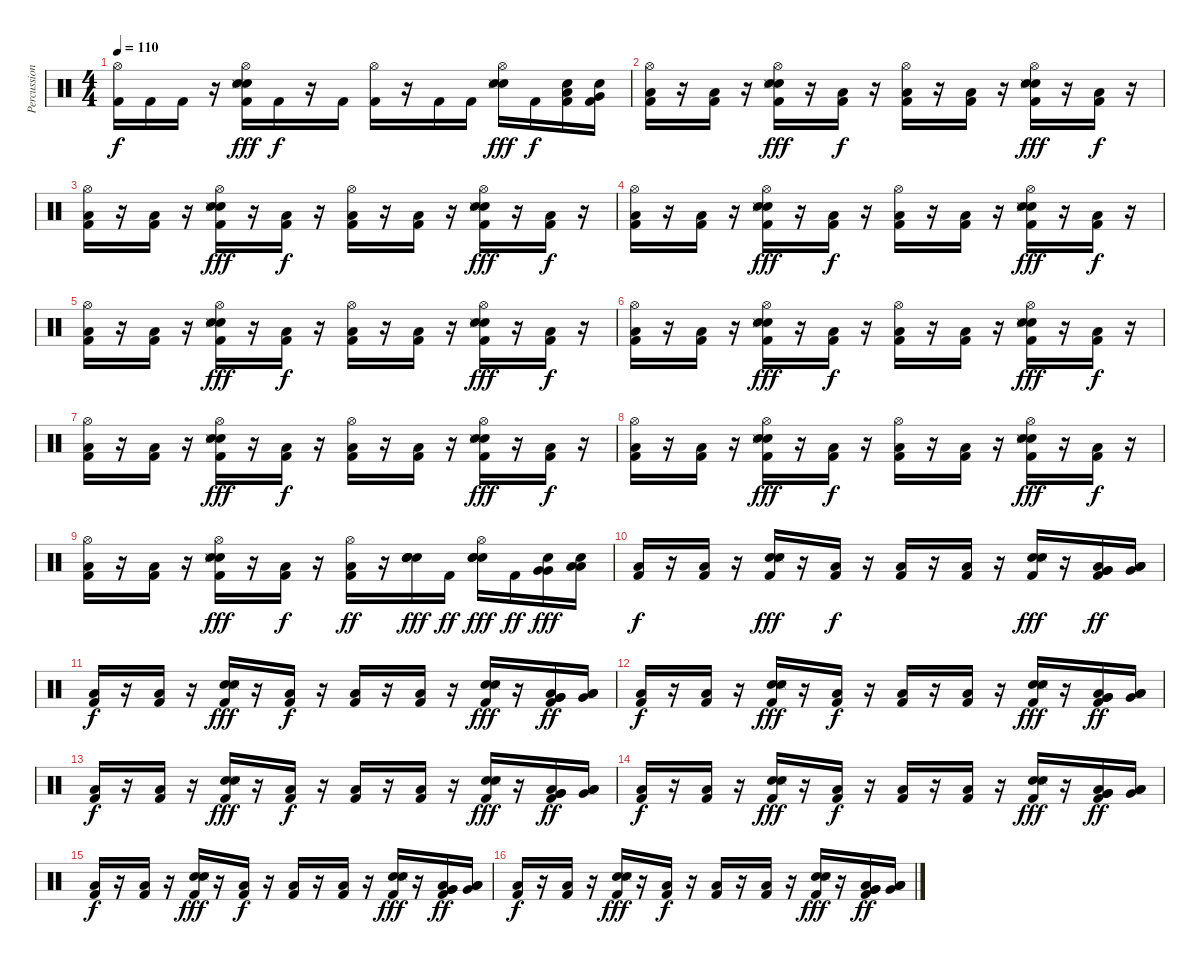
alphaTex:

\track ("Percussion" "Percussion") {instrument percussion}
\staff {score}
\articulation defaults
\ts (4 4)
\tempo 110
\clef neutral
\ks c
("Hi-Hat (open)" "Kick (hit) 2").16{dy f} "Kick (hit) 2".16 "Kick (hit) 2".16 r.16 ("Hi-Hat (open)" "Electric Snare (hit)" "Electric Snare (hit)" "Snare (side stick) 3" "Kick (hit) 2").16{dy fff} "Kick (hit) 2".16{dy f} r.16 "Kick (hit) 2".16 ("Hi-Hat (open)" "Kick (hit) 2").16 r.16 "Kick (hit) 2".16 "Kick (hit) 2".16 ("Hi-Hat (open)" "Electric Snare (hit)" "Electric Snare (hit)" "Snare (side stick) 3").16{dy fff} "Kick (hit) 2".16{dy f} ("Low Floor Tom (hit)" "Electric Snare (hit)" "Kick (hit) 2").16 ("Very Low Tom (hit)" "Electric Snare (hit)" "Kick (hit) 2").16 |
("Hi-Hat (open)" "Low Floor Tom (hit)" "Kick (hit) 2").16 r.16 ("Low Floor Tom (hit)" "Kick (hit) 2").16 r.16 ("Hi-Hat (open)" "Electric Snare (hit)" "Electric Snare (hit)" "Snare (side stick) 3" "Kick (hit) 2").16{dy fff} r.16 ("Low Floor Tom (hit)" "Kick (hit) 2").16{dy f} r.16 ("Hi-Hat (open)" "Low Floor Tom (hit)" "Kick (hit) 2").16 r.16 ("Low Floor Tom (hit)" "Kick (hit) 2").16 r.16 ("Hi-Hat (open)" "Electric Snare (hit)" "Electric Snare (hit)" "Snare (side stick) 3" "Kick (hit) 2").16{dy fff} r.16 ("Low Floor Tom (hit)" "Kick (hit) 2").16{dy f} r.16 |
("Hi-Hat (open)" "Low Floor Tom (hit)" "Kick (hit) 2").16 r.16 ("Low Floor Tom (hit)" "Kick (hit) 2").16 r.16 ("Hi-Hat (open)" "Electric Snare (hit)" "Electric Snare (hit)" "Snare (side stick) 3" "Kick (hit) 2").16{dy fff} r.16 ("Low Floor Tom (hit)" "Kick (hit) 2").16{dy f} r.16 ("Hi-Hat (open)" "Low Floor Tom (hit)" "Kick (hit) 2").16 r.16 ("Low Floor Tom (hit)" "Kick (hit) 2").16 r.16 ("Hi-Hat (open)" "Electric Snare (hit)" "Electric Snare (hit)" "Snare (side stick) 3" "Kick (hit) 2").16{dy fff} r.16 ("Low Floor Tom (hit)" "Kick (hit) 2").16{dy f} r.16 |
("Hi-Hat (open)" "Low Floor Tom (hit)" "Kick (hit) 2").16 r.16 ("Low Floor Tom (hit)" "Kick (hit) 2").16 r.16 ("Hi-Hat (open)" "Electric Snare (hit)" "Electric Snare (hit)" "Snare (side stick) 3" "Kick (hit) 2").16{dy fff} r.16 ("Low Floor Tom (hit)" "Kick (hit) 2").16{dy f} r.16 ("Hi-Hat (open)" "Low Floor Tom (hit)" "Kick (hit) 2").16 r.16 ("Low Floor Tom (hit)" "Kick (hit) 2").16 r.16 ("Hi-Hat (open)" "Electric Snare (hit)" "Electric Snare (hit)" "Snare (side stick) 3" "Kick (hit) 2").16{dy fff} r.16 ("Low Floor Tom (hit)" "Kick (hit) 2").16{dy f} r.16 |
("Hi-Hat (open)" "Low Floor Tom (hit)" "Kick (hit) 2").16 r.16 ("Low Floor Tom (hit)" "Kick (hit) 2").16 r.16 ("Hi-Hat (open)" "Electric Snare (hit)" "Electric Snare (hit)" "Snare (side stick) 3" "Kick (hit) 2").16{dy fff} r.16 ("Low Floor Tom (hit)" "Kick (hit) 2").16{dy f} r.16 ("Hi-Hat (open)" "Low Floor Tom (hit)" "Kick (hit) 2").16 r.16 ("Low Floor Tom (hit)" "Kick (hit) 2").16 r.16 ("Hi-Hat (open)" "Electric Snare (hit)" "Electric Snare (hit)" "Snare (side stick) 3" "Kick (hit) 2").16{dy fff} r.16 ("Low Floor Tom (hit)" "Kick (hit) 2").16{dy f} r.16 |
("Hi-Hat (open)" "Low Floor Tom (hit)" "Kick (hit) 2").16 r.16 ("Low Floor Tom (hit)" "Kick (hit) 2").16 r.16 ("Hi-Hat (open)" "Electric Snare (hit)" "Electric Snare (hit)" "Snare (side stick) 3" "Kick (hit) 2").16{dy fff} r.16 ("Low Floor Tom (hit)" "Kick (hit) 2").16{dy f} r.16 ("Hi-Hat (open)" "Low Floor Tom (hit)" "Kick (hit) 2").16 r.16 ("Low Floor Tom (hit)" "Kick (hit) 2").16 r.16 ("Hi-Hat (open)" "Electric Snare (hit)" "Electric Snare (hit)" "Snare (side stick) 3" "Kick (hit) 2").16{dy fff} r.16 ("Low Floor Tom (hit)" "Kick (hit) 2").16{dy f} r.16 |
("Hi-Hat (open)" "Low Floor Tom (hit)" "Kick (hit) 2").16 r.16 ("Low Floor Tom (hit)" "Kick (hit) 2").16 r.16 ("Hi-Hat (open)" "Electric Snare (hit)" "Electric Snare (hit)" "Snare (side stick) 3" "Kick (hit) 2").16{dy fff} r.16 ("Low Floor Tom (hit)" "Kick (hit) 2").16{dy f} r.16 ("Hi-Hat (open)" "Low Floor Tom (hit)" "Kick (hit) 2").16 r.16 ("Low Floor Tom (hit)" "Kick (hit) 2").16 r.16 ("Hi-Hat (open)" "Electric Snare (hit)" "Electric Snare (hit)" "Snare (side stick) 3" "Kick (hit) 2").16{dy fff} r.16 ("Low Floor Tom (hit)" "Kick (hit) 2").16{dy f} r.16 |
("Hi-Hat (open)" "Low Floor Tom (hit)" "Kick (hit) 2").16 r.16 ("Low Floor Tom (hit)" "Kick (hit) 2").16 r.16 ("Hi-Hat (open)" "Electric Snare (hit)" "Electric Snare (hit)" "Snare (side stick) 3" "Kick (hit) 2").16{dy fff} r.16 ("Low Floor Tom (hit)" "Kick (hit) 2").16{dy f} r.16 ("Hi-Hat (open)" "Low Floor Tom (hit)" "Kick (hit) 2").16 r.16 ("Low Floor Tom (hit)" "Kick (hit) 2").16 r.16 ("Hi-Hat (open)" "Electric Snare (hit)" "Electric Snare (hit)" "Snare (side stick) 3" "Kick (hit) 2").16{dy fff} r.16 ("Low Floor Tom (hit)" "Kick (hit) 2").16{dy f} r.16 |
("Hi-Hat (open)" "Low Floor Tom (hit)" "Kick (hit) 2").16 r.16 ("Low Floor Tom (hit)" "Kick (hit) 2").16 r.16 ("Hi-Hat (open)" "Electric Snare (hit)" "Electric Snare (hit)" "Snare (side stick) 3" "Kick (hit) 2").16{dy fff} r.16 ("Low Floor Tom (hit)" "Kick (hit) 2").16{dy f} r.16 ("Hi-Hat (open)" "Low Floor Tom (hit)" "Kick (hit) 2").16{dy ff} r.16 ("Electric Snare (hit)" "Electric Snare (hit)" "Electric Snare (hit)" "Electric Snare (hit)").16{dy fff} "Kick (hit) 2".16{dy ff} ("Hi-Hat (open)" "Electric Snare (hit)" "Electric Snare (hit)" "Electric Snare (hit)").16{dy fff} "Kick (hit) 2".16{dy ff} ("Very Low Tom (hit)" "Very Low Tom (hit)" "Electric Snare (hit)").16{dy fff} ("Low Floor Tom (hit)" "Low Floor Tom (hit)" "Electric Snare (hit)").16 |
("Low Floor Tom (hit)" "Kick (hit) 2").16{dy f} r.16 ("Low Floor Tom (hit)" "Kick (hit) 2").16 r.16 ("Electric Snare (hit)" "Electric Snare (hit)" "Snare (side stick) 3" "Kick (hit) 2").16{dy fff} r.16 ("Low Floor Tom (hit)" "Kick (hit) 2").16{dy f} r.16 ("Low Floor Tom (hit)" "Kick (hit) 2").16 r.16 ("Low Floor Tom (hit)" "Kick (hit) 2").16 r.16 ("Electric Snare (hit)" "Electric Snare (hit)" "Snare (side stick) 3" "Kick (hit) 2").16{dy fff} r.16 ("Low Tom (hit)" "Very Low Tom (hit)" "Very Low Tom (hit)" "Kick (hit) 2").16{dy ff} ("Very Low Tom (hit)" "Low Floor Tom (hit)" "Low Floor Tom (hit)").16 |
("Low Floor Tom (hit)" "Kick (hit) 2").16{dy f} r.16 ("Low Floor Tom (hit)" "Kick (hit) 2").16 r.16 ("Electric Snare (hit)" "Electric Snare (hit)" "Snare (side stick) 3" "Kick (hit) 2").16{dy fff} r.16 ("Low Floor Tom (hit)" "Kick (hit) 2").16{dy f} r.16 ("Low Floor Tom (hit)" "Kick (hit) 2").16 r.16 ("Low Floor Tom (hit)" "Kick (hit) 2").16 r.16 ("Electric Snare (hit)" "Electric Snare (hit)" "Snare (side stick) 3" "Kick (hit) 2").16{dy fff} r.16 ("Low Tom (hit)" "Very Low Tom (hit)" "Very Low Tom (hit)" "Kick (hit) 2").16{dy ff} ("Very Low Tom (hit)" "Low Floor Tom (hit)" "Low Floor Tom (hit)").16 |
("Low Floor Tom (hit)" "Kick (hit) 2").16{dy f} r.16 ("Low Floor Tom (hit)" "Kick (hit) 2").16 r.16 ("Electric Snare (hit)" "Electric Snare (hit)" "Snare (side stick) 3" "Kick (hit) 2").16{dy fff} r.16 ("Low Floor Tom (hit)" "Kick (hit) 2").16{dy f} r.16 ("Low Floor Tom (hit)" "Kick (hit) 2").16 r.16 ("Low Floor Tom (hit)" "Kick (hit) 2").16 r.16 ("Electric Snare (hit)" "Electric Snare (hit)" "Snare (side stick) 3" "Kick (hit) 2").16{dy fff} r.16 ("Low Tom (hit)" "Very Low Tom (hit)" "Very Low Tom (hit)" "Kick (hit) 2").16{dy ff} ("Very Low Tom (hit)" "Low Floor Tom (hit)" "Low Floor Tom (hit)").16 |
("Low Floor Tom (hit)" "Kick (hit) 2").16{dy f} r.16 ("Low Floor Tom (hit)" "Kick (hit) 2").16 r.16 ("Electric Snare (hit)" "Electric Snare (hit)" "Snare (side stick) 3" "Kick (hit) 2").16{dy fff} r.16 ("Low Floor Tom (hit)" "Kick (hit) 2").16{dy f} r.16 ("Low Floor Tom (hit)" "Kick (hit) 2").16 r.16 ("Low Floor Tom (hit)" "Kick (hit) 2").16 r.16 ("Electric Snare (hit)" "Electric Snare (hit)" "Snare (side stick) 3" "Kick (hit) 2").16{dy fff} r.16 ("Low Tom (hit)" "Very Low Tom (hit)" "Very Low Tom (hit)" "Kick (hit) 2").16{dy ff} ("Very Low Tom (hit)" "Low Floor Tom (hit)" "Low Floor Tom (hit)").16 |
("Low Floor Tom (hit)" "Kick (hit) 2").16{dy f} r.16 ("Low Floor Tom (hit)" "Kick (hit) 2").16 r.16 ("Electric Snare (hit)" "Electric Snare (hit)" "Snare (side stick) 3" "Kick (hit) 2").16{dy fff} r.16 ("Low Floor Tom (hit)" "Kick (hit) 2").16{dy f} r.16 ("Low Floor Tom (hit)" "Kick (hit) 2").16 r.16 ("Low Floor Tom (hit)" "Kick (hit) 2").16 r.16 ("Electric Snare (hit)" "Electric Snare (hit)" "Snare (side stick) 3" "Kick (hit) 2").16{dy fff} r.16 ("Low Tom (hit)" "Very Low Tom (hit)" "Very Low Tom (hit)" "Kick (hit) 2").16{dy ff} ("Very Low Tom (hit)" "Low Floor Tom (hit)" "Low Floor Tom (hit)").16 |
("Low Floor Tom (hit)" "Kick (hit) 2").16{dy f} r.16 ("Low Floor Tom (hit)" "Kick (hit) 2").16 r.16 ("Electric Snare (hit)" "Electric Snare (hit)" "Snare (side stick) 3" "Kick (hit) 2").16{dy fff} r.16 ("Low Floor Tom (hit)" "Kick (hit) 2").16{dy f} r.16 ("Low Floor Tom (hit)" "Kick (hit) 2").16 r.16 ("Low Floor Tom (hit)" "Kick (hit) 2").16 r.16 ("Electric Snare (hit)" "Electric Snare (hit)" "Snare (side stick) 3" "Kick (hit) 2").16{dy fff} r.16 ("Low Tom (hit)" "Very Low Tom (hit)" "Very Low Tom (hit)" "Kick (hit) 2").16{dy ff} ("Very Low Tom (hit)" "Low Floor Tom (hit)" "Low Floor Tom (hit)").16 |
("Low Floor Tom (hit)" "Kick (hit) 2").16{dy f} r.16 ("Low Floor Tom (hit)" "Kick (hit) 2").16 r.16 ("Electric Snare (hit)" "Electric Snare (hit)" "Snare (side stick) 3" "Kick (hit) 2").16{dy fff} r.16 ("Low Floor Tom (hit)" "Kick (hit) 2").16{dy f} r.16 ("Low Floor Tom (hit)" "Kick (hit) 2").16 r.16 ("Low Floor Tom (hit)" "Kick (hit) 2").16 r.16 ("Electric Snare (hit)" "Electric Snare (hit)" "Snare (side stick) 3" "Kick (hit) 2").16{dy fff} r.16 ("Low Tom (hit)" "Very Low Tom (hit)" "Very Low Tom (hit)" "Kick (hit) 2").16{dy ff} ("Very Low Tom (hit)" "Low Floor Tom (hit)" "Low Floor Tom (hit)").16
